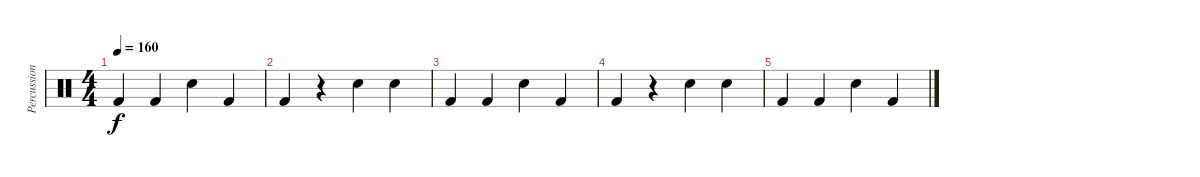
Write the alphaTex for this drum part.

\track ("Percussion" "Percussion") {instrument percussion}
\staff {score}
\articulation defaults
\ts (4 4)
\tempo 160
\clef neutral
\ks c "Kick (hit) 2".4{dy f} "Kick (hit) 2".4 "Electric Snare (hit)".4 "Kick (hit) 2".4
|
"Kick (hit) 2".4 r.4 "Electric Snare (hit)".4 "Electric Snare (hit)".4 |
"Kick (hit) 2".4 "Kick (hit) 2".4 "Electric Snare (hit)".4 "Kick (hit) 2".4 |
"Kick (hit) 2".4 r.4 "Electric Snare (hit)".4 "Electric Snare (hit)".4 |
"Kick (hit) 2".4 "Kick (hit) 2".4 "Electric Snare (hit)".4 "Kick (hit) 2".4
